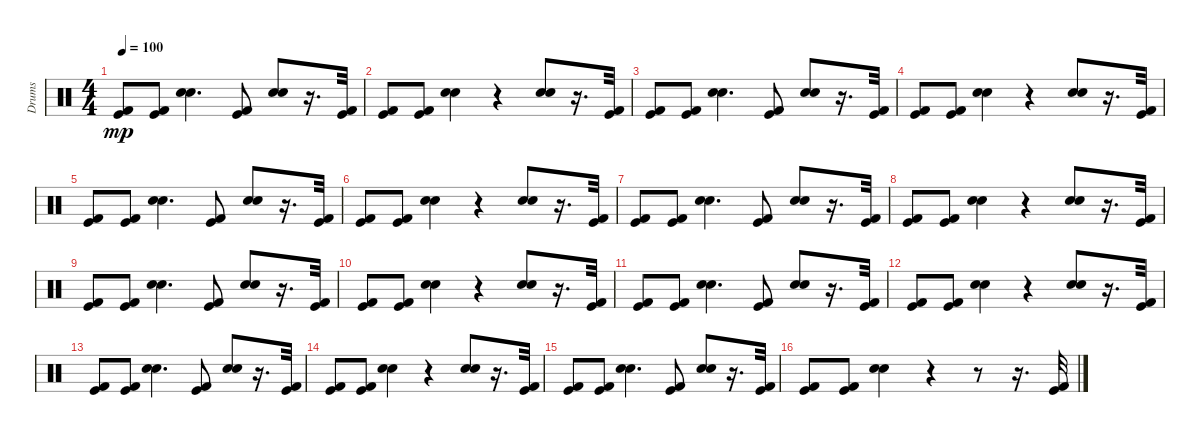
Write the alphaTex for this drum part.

\track ("Drums" "Drums") {instrument percussion}
\staff {score}
\articulation defaults
\ts (4 4)
\tempo 100
\clef neutral
\ks c
("Kick (hit)" "Kick (hit) 2").8{dy mp} ("Kick (hit)" "Kick (hit) 2").8 ("Snare (hit) 2" "Electric Snare (hit)").4{d} ("Kick (hit)" "Kick (hit) 2").8 ("Snare (hit) 2" "Electric Snare (hit)").8 r.16{d} ("Kick (hit)" "Kick (hit) 2").32 |
("Kick (hit)" "Kick (hit) 2").8 ("Kick (hit)" "Kick (hit) 2").8 ("Snare (hit) 2" "Electric Snare (hit)").4 r.4 ("Snare (hit) 2" "Electric Snare (hit)").8 r.16{d} ("Kick (hit)" "Kick (hit) 2").32 |
("Kick (hit)" "Kick (hit) 2").8 ("Kick (hit)" "Kick (hit) 2").8 ("Snare (hit) 2" "Electric Snare (hit)").4{d} ("Kick (hit)" "Kick (hit) 2").8 ("Snare (hit) 2" "Electric Snare (hit)").8 r.16{d} ("Kick (hit)" "Kick (hit) 2").32 |
("Kick (hit)" "Kick (hit) 2").8 ("Kick (hit)" "Kick (hit) 2").8 ("Snare (hit) 2" "Electric Snare (hit)").4 r.4 ("Snare (hit) 2" "Electric Snare (hit)").8 r.16{d} ("Kick (hit)" "Kick (hit) 2").32 |
("Kick (hit)" "Kick (hit) 2").8 ("Kick (hit)" "Kick (hit) 2").8 ("Snare (hit) 2" "Electric Snare (hit)").4{d} ("Kick (hit)" "Kick (hit) 2").8 ("Snare (hit) 2" "Electric Snare (hit)").8 r.16{d} ("Kick (hit)" "Kick (hit) 2").32 |
("Kick (hit)" "Kick (hit) 2").8 ("Kick (hit)" "Kick (hit) 2").8 ("Snare (hit) 2" "Electric Snare (hit)").4 r.4 ("Snare (hit) 2" "Electric Snare (hit)").8 r.16{d} ("Kick (hit)" "Kick (hit) 2").32 |
("Kick (hit)" "Kick (hit) 2").8 ("Kick (hit)" "Kick (hit) 2").8 ("Snare (hit) 2" "Electric Snare (hit)").4{d} ("Kick (hit)" "Kick (hit) 2").8 ("Snare (hit) 2" "Electric Snare (hit)").8 r.16{d} ("Kick (hit)" "Kick (hit) 2").32 |
("Kick (hit)" "Kick (hit) 2").8 ("Kick (hit)" "Kick (hit) 2").8 ("Snare (hit) 2" "Electric Snare (hit)").4 r.4 ("Snare (hit) 2" "Electric Snare (hit)").8 r.16{d} ("Kick (hit)" "Kick (hit) 2").32 |
("Kick (hit)" "Kick (hit) 2").8 ("Kick (hit)" "Kick (hit) 2").8 ("Snare (hit) 2" "Electric Snare (hit)").4{d} ("Kick (hit)" "Kick (hit) 2").8 ("Snare (hit) 2" "Electric Snare (hit)").8 r.16{d} ("Kick (hit)" "Kick (hit) 2").32 |
("Kick (hit)" "Kick (hit) 2").8 ("Kick (hit)" "Kick (hit) 2").8 ("Snare (hit) 2" "Electric Snare (hit)").4 r.4 ("Snare (hit) 2" "Electric Snare (hit)").8 r.16{d} ("Kick (hit)" "Kick (hit) 2").32 |
("Kick (hit)" "Kick (hit) 2").8 ("Kick (hit)" "Kick (hit) 2").8 ("Snare (hit) 2" "Electric Snare (hit)").4{d} ("Kick (hit)" "Kick (hit) 2").8 ("Snare (hit) 2" "Electric Snare (hit)").8 r.16{d} ("Kick (hit)" "Kick (hit) 2").32 |
("Kick (hit)" "Kick (hit) 2").8 ("Kick (hit)" "Kick (hit) 2").8 ("Snare (hit) 2" "Electric Snare (hit)").4 r.4 ("Snare (hit) 2" "Electric Snare (hit)").8 r.16{d} ("Kick (hit)" "Kick (hit) 2").32 |
("Kick (hit)" "Kick (hit) 2").8 ("Kick (hit)" "Kick (hit) 2").8 ("Snare (hit) 2" "Electric Snare (hit)").4{d} ("Kick (hit)" "Kick (hit) 2").8 ("Snare (hit) 2" "Electric Snare (hit)").8 r.16{d} ("Kick (hit)" "Kick (hit) 2").32 |
("Kick (hit)" "Kick (hit) 2").8 ("Kick (hit)" "Kick (hit) 2").8 ("Snare (hit) 2" "Electric Snare (hit)").4 r.4 ("Snare (hit) 2" "Electric Snare (hit)").8 r.16{d} ("Kick (hit)" "Kick (hit) 2").32 |
("Kick (hit)" "Kick (hit) 2").8 ("Kick (hit)" "Kick (hit) 2").8 ("Snare (hit) 2" "Electric Snare (hit)").4{d} ("Kick (hit)" "Kick (hit) 2").8 ("Snare (hit) 2" "Electric Snare (hit)").8 r.16{d} ("Kick (hit)" "Kick (hit) 2").32 |
("Kick (hit)" "Kick (hit) 2").8 ("Kick (hit)" "Kick (hit) 2").8 ("Snare (hit) 2" "Electric Snare (hit)").4 r.4 r.8 r.16{d} ("Kick (hit)" "Kick (hit) 2").32
